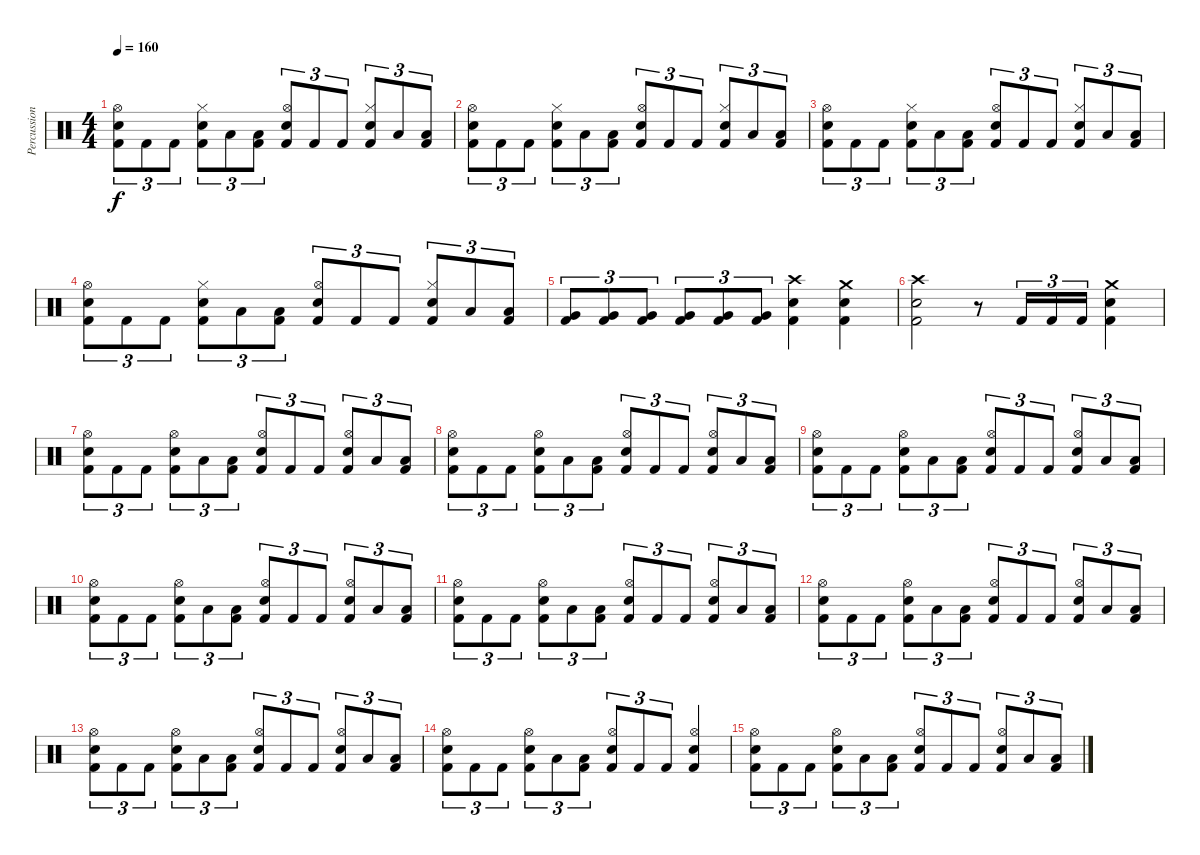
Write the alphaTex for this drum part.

\track ("Percussions" "Percussion") {instrument percussion}
\staff {score}
\articulation defaults
\ts (4 4)
\tempo 160
\clef neutral
\ks c
("Kick (hit) 2" "Electric Snare (hit)" "Hi-Hat (open)").8{tu (3 2) dy f} "Kick (hit) 2".8{tu (3 2)} "Kick (hit) 2".8{tu (3 2)} ("Kick (hit) 2" "Electric Snare (hit)" "Hi-Hat (closed)").8{tu (3 2)} "Low Floor Tom (hit)".8{tu (3 2)} ("Kick (hit) 2" "Low Floor Tom (hit)").8{tu (3 2)} ("Kick (hit) 2" "Snare (hit) 2" "Hi-Hat (open)").8{tu (3 2)} "Kick (hit) 2".8{tu (3 2)} "Kick (hit) 2".8{tu (3 2)} ("Kick (hit) 2" "Snare (hit) 2" "Hi-Hat (closed)").8{tu (3 2)} "Low Floor Tom (hit)".8{tu (3 2)} ("Kick (hit) 2" "Low Floor Tom (hit)").8{tu (3 2)} |
("Kick (hit) 2" "Electric Snare (hit)" "Hi-Hat (open)").8{tu (3 2)} "Kick (hit) 2".8{tu (3 2)} "Kick (hit) 2".8{tu (3 2)} ("Kick (hit) 2" "Electric Snare (hit)" "Hi-Hat (closed)").8{tu (3 2)} "Low Floor Tom (hit)".8{tu (3 2)} ("Kick (hit) 2" "Low Floor Tom (hit)").8{tu (3 2)} ("Kick (hit) 2" "Snare (hit) 2" "Hi-Hat (open)").8{tu (3 2)} "Kick (hit) 2".8{tu (3 2)} "Kick (hit) 2".8{tu (3 2)} ("Kick (hit) 2" "Snare (hit) 2" "Hi-Hat (closed)").8{tu (3 2)} "Low Floor Tom (hit)".8{tu (3 2)} ("Kick (hit) 2" "Low Floor Tom (hit)").8{tu (3 2)} |
("Kick (hit) 2" "Electric Snare (hit)" "Hi-Hat (open)").8{tu (3 2)} "Kick (hit) 2".8{tu (3 2)} "Kick (hit) 2".8{tu (3 2)} ("Kick (hit) 2" "Electric Snare (hit)" "Hi-Hat (closed)").8{tu (3 2)} "Low Floor Tom (hit)".8{tu (3 2)} ("Kick (hit) 2" "Low Floor Tom (hit)").8{tu (3 2)} ("Kick (hit) 2" "Snare (hit) 2" "Hi-Hat (open)").8{tu (3 2)} "Kick (hit) 2".8{tu (3 2)} "Kick (hit) 2".8{tu (3 2)} ("Kick (hit) 2" "Snare (hit) 2" "Hi-Hat (closed)").8{tu (3 2)} "Low Floor Tom (hit)".8{tu (3 2)} ("Kick (hit) 2" "Low Floor Tom (hit)").8{tu (3 2)} |
("Kick (hit) 2" "Electric Snare (hit)" "Hi-Hat (open)").8{tu (3 2)} "Kick (hit) 2".8{tu (3 2)} "Kick (hit) 2".8{tu (3 2)} ("Kick (hit) 2" "Electric Snare (hit)" "Hi-Hat (closed)").8{tu (3 2)} "Low Floor Tom (hit)".8{tu (3 2)} ("Kick (hit) 2" "Low Floor Tom (hit)").8{tu (3 2)} ("Kick (hit) 2" "Snare (hit) 2" "Hi-Hat (open)").8{tu (3 2)} "Kick (hit) 2".8{tu (3 2)} "Kick (hit) 2".8{tu (3 2)} ("Kick (hit) 2" "Snare (hit) 2" "Hi-Hat (closed)").8{tu (3 2)} "Low Floor Tom (hit)".8{tu (3 2)} ("Kick (hit) 2" "Low Floor Tom (hit)").8{tu (3 2)} |
("Kick (hit) 2" "Very Low Tom (hit)").8{tu (3 2)} ("Kick (hit) 2" "Very Low Tom (hit)").8{tu (3 2)} ("Kick (hit) 2" "Very Low Tom (hit)").8{tu (3 2)} ("Kick (hit) 2" "Very Low Tom (hit)").8{tu (3 2)} ("Kick (hit) 2" "Very Low Tom (hit)").8{tu (3 2)} ("Kick (hit) 2" "Very Low Tom (hit)").8{tu (3 2)} ("Kick (hit) 2" "Snare (hit) 2" "Crash high (hit)").4 ("Kick (hit) 2" "Snare (hit) 2" "Crash medium (hit)").4 |
("Kick (hit) 2" "Snare (hit) 2" "Crash high (hit)").2 r.8 "Kick (hit) 2".16{tu (3 2)} "Kick (hit) 2".16{tu (3 2)} "Kick (hit) 2".16{tu (3 2)} ("Kick (hit) 2" "Snare (hit) 2" "Crash medium (hit)").4 |
("Kick (hit) 2" "Electric Snare (hit)" "Hi-Hat (open)").8{tu (3 2)} "Kick (hit) 2".8{tu (3 2)} "Kick (hit) 2".8{tu (3 2)} ("Kick (hit) 2" "Electric Snare (hit)" "Hi-Hat (open)").8{tu (3 2)} "Low Floor Tom (hit)".8{tu (3 2)} ("Kick (hit) 2" "Low Floor Tom (hit)").8{tu (3 2)} ("Kick (hit) 2" "Snare (hit) 2" "Hi-Hat (open)").8{tu (3 2)} "Kick (hit) 2".8{tu (3 2)} "Kick (hit) 2".8{tu (3 2)} ("Kick (hit) 2" "Snare (hit) 2" "Hi-Hat (open)").8{tu (3 2)} "Low Floor Tom (hit)".8{tu (3 2)} ("Kick (hit) 2" "Low Floor Tom (hit)").8{tu (3 2)} |
("Kick (hit) 2" "Electric Snare (hit)" "Hi-Hat (open)").8{tu (3 2)} "Kick (hit) 2".8{tu (3 2)} "Kick (hit) 2".8{tu (3 2)} ("Kick (hit) 2" "Electric Snare (hit)" "Hi-Hat (open)").8{tu (3 2)} "Low Floor Tom (hit)".8{tu (3 2)} ("Kick (hit) 2" "Low Floor Tom (hit)").8{tu (3 2)} ("Kick (hit) 2" "Snare (hit) 2" "Hi-Hat (open)").8{tu (3 2)} "Kick (hit) 2".8{tu (3 2)} "Kick (hit) 2".8{tu (3 2)} ("Kick (hit) 2" "Snare (hit) 2" "Hi-Hat (open)").8{tu (3 2)} "Low Floor Tom (hit)".8{tu (3 2)} ("Kick (hit) 2" "Low Floor Tom (hit)").8{tu (3 2)} |
("Kick (hit) 2" "Electric Snare (hit)" "Hi-Hat (open)").8{tu (3 2)} "Kick (hit) 2".8{tu (3 2)} "Kick (hit) 2".8{tu (3 2)} ("Kick (hit) 2" "Electric Snare (hit)" "Hi-Hat (open)").8{tu (3 2)} "Low Floor Tom (hit)".8{tu (3 2)} ("Kick (hit) 2" "Low Floor Tom (hit)").8{tu (3 2)} ("Kick (hit) 2" "Snare (hit) 2" "Hi-Hat (open)").8{tu (3 2)} "Kick (hit) 2".8{tu (3 2)} "Kick (hit) 2".8{tu (3 2)} ("Kick (hit) 2" "Snare (hit) 2" "Hi-Hat (open)").8{tu (3 2)} "Low Floor Tom (hit)".8{tu (3 2)} ("Kick (hit) 2" "Low Floor Tom (hit)").8{tu (3 2)} |
("Kick (hit) 2" "Electric Snare (hit)" "Hi-Hat (open)").8{tu (3 2)} "Kick (hit) 2".8{tu (3 2)} "Kick (hit) 2".8{tu (3 2)} ("Kick (hit) 2" "Electric Snare (hit)" "Hi-Hat (open)").8{tu (3 2)} "Low Floor Tom (hit)".8{tu (3 2)} ("Kick (hit) 2" "Low Floor Tom (hit)").8{tu (3 2)} ("Kick (hit) 2" "Snare (hit) 2" "Hi-Hat (open)").8{tu (3 2)} "Kick (hit) 2".8{tu (3 2)} "Kick (hit) 2".8{tu (3 2)} ("Kick (hit) 2" "Snare (hit) 2" "Hi-Hat (open)").8{tu (3 2)} "Low Floor Tom (hit)".8{tu (3 2)} ("Kick (hit) 2" "Low Floor Tom (hit)").8{tu (3 2)} |
("Kick (hit) 2" "Electric Snare (hit)" "Hi-Hat (open)").8{tu (3 2)} "Kick (hit) 2".8{tu (3 2)} "Kick (hit) 2".8{tu (3 2)} ("Kick (hit) 2" "Electric Snare (hit)" "Hi-Hat (open)").8{tu (3 2)} "Low Floor Tom (hit)".8{tu (3 2)} ("Kick (hit) 2" "Low Floor Tom (hit)").8{tu (3 2)} ("Kick (hit) 2" "Snare (hit) 2" "Hi-Hat (open)").8{tu (3 2)} "Kick (hit) 2".8{tu (3 2)} "Kick (hit) 2".8{tu (3 2)} ("Kick (hit) 2" "Snare (hit) 2" "Hi-Hat (open)").8{tu (3 2)} "Low Floor Tom (hit)".8{tu (3 2)} ("Kick (hit) 2" "Low Floor Tom (hit)").8{tu (3 2)} |
("Kick (hit) 2" "Electric Snare (hit)" "Hi-Hat (open)").8{tu (3 2)} "Kick (hit) 2".8{tu (3 2)} "Kick (hit) 2".8{tu (3 2)} ("Kick (hit) 2" "Electric Snare (hit)" "Hi-Hat (open)").8{tu (3 2)} "Low Floor Tom (hit)".8{tu (3 2)} ("Kick (hit) 2" "Low Floor Tom (hit)").8{tu (3 2)} ("Kick (hit) 2" "Snare (hit) 2" "Hi-Hat (open)").8{tu (3 2)} "Kick (hit) 2".8{tu (3 2)} "Kick (hit) 2".8{tu (3 2)} ("Kick (hit) 2" "Snare (hit) 2" "Hi-Hat (open)").8{tu (3 2)} "Low Floor Tom (hit)".8{tu (3 2)} ("Kick (hit) 2" "Low Floor Tom (hit)").8{tu (3 2)} |
("Kick (hit) 2" "Electric Snare (hit)" "Hi-Hat (open)").8{tu (3 2)} "Kick (hit) 2".8{tu (3 2)} "Kick (hit) 2".8{tu (3 2)} ("Kick (hit) 2" "Electric Snare (hit)" "Hi-Hat (open)").8{tu (3 2)} "Low Floor Tom (hit)".8{tu (3 2)} ("Kick (hit) 2" "Low Floor Tom (hit)").8{tu (3 2)} ("Kick (hit) 2" "Snare (hit) 2" "Hi-Hat (open)").8{tu (3 2)} "Kick (hit) 2".8{tu (3 2)} "Kick (hit) 2".8{tu (3 2)} ("Kick (hit) 2" "Snare (hit) 2" "Hi-Hat (open)").8{tu (3 2)} "Low Floor Tom (hit)".8{tu (3 2)} ("Kick (hit) 2" "Low Floor Tom (hit)").8{tu (3 2)} |
("Kick (hit) 2" "Electric Snare (hit)" "Hi-Hat (open)").8{tu (3 2)} "Kick (hit) 2".8{tu (3 2)} "Kick (hit) 2".8{tu (3 2)} ("Kick (hit) 2" "Electric Snare (hit)" "Hi-Hat (open)").8{tu (3 2)} "Low Floor Tom (hit)".8{tu (3 2)} ("Kick (hit) 2" "Low Floor Tom (hit)").8{tu (3 2)} ("Kick (hit) 2" "Snare (hit) 2" "Hi-Hat (open)").8{tu (3 2)} "Kick (hit) 2".8{tu (3 2)} "Kick (hit) 2".8{tu (3 2)} ("Kick (hit) 2" "Snare (hit) 2" "Hi-Hat (open)").4 |
("Kick (hit) 2" "Electric Snare (hit)" "Hi-Hat (open)").8{tu (3 2)} "Kick (hit) 2".8{tu (3 2)} "Kick (hit) 2".8{tu (3 2)} ("Kick (hit) 2" "Electric Snare (hit)" "Hi-Hat (open)").8{tu (3 2)} "Low Floor Tom (hit)".8{tu (3 2)} ("Kick (hit) 2" "Low Floor Tom (hit)").8{tu (3 2)} ("Kick (hit) 2" "Snare (hit) 2" "Hi-Hat (open)").8{tu (3 2)} "Kick (hit) 2".8{tu (3 2)} "Kick (hit) 2".8{tu (3 2)} ("Kick (hit) 2" "Snare (hit) 2" "Hi-Hat (open)").8{tu (3 2)} "Low Floor Tom (hit)".8{tu (3 2)} ("Kick (hit) 2" "Low Floor Tom (hit)").8{tu (3 2)}
